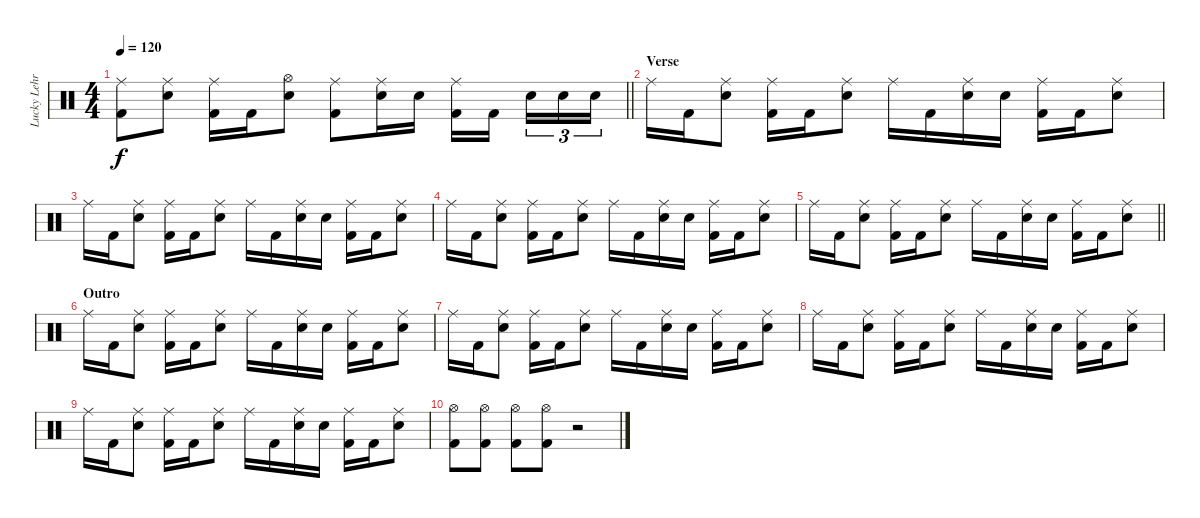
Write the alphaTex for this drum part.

\track ("Lucky Lehrer" "Lucky Lehr") {instrument percussion}
\staff {score}
\articulation defaults
\ts (4 4)
\tempo 120
\clef neutral
\barLineRight lightlight
\ks c
("Ride (middle)" "Kick (hit) 2").8{dy f} ("Ride (middle)" "Electric Snare (hit)").8 ("Ride (middle)" "Kick (hit) 2").16 "Kick (hit) 2".16 ("Hi-Hat (open)" "Electric Snare (hit)").8 ("Ride (middle)" "Kick (hit) 2").8 ("Ride (middle)" "Electric Snare (hit)").16 "Electric Snare (hit)".16 ("Ride (middle)" "Kick (hit) 2").16 "Kick (hit) 2".16{beam splitsecondary} "Electric Snare (hit)".16{tu (3 2)} "Electric Snare (hit)".16{tu (3 2)} "Electric Snare (hit)".16{tu (3 2)} |
\section ("" "Verse")
"Ride (middle)".16 "Kick (hit) 2".16 ("Ride (middle)" "Electric Snare (hit)").8 ("Ride (middle)" "Kick (hit) 2").16 "Kick (hit) 2".16 ("Ride (middle)" "Electric Snare (hit)").8 "Ride (middle)".16 "Kick (hit) 2".16 ("Ride (middle)" "Electric Snare (hit)").16 "Electric Snare (hit)".16 ("Ride (middle)" "Kick (hit) 2").16 "Kick (hit) 2".16 ("Ride (middle)" "Electric Snare (hit)").8 |
"Ride (middle)".16 "Kick (hit) 2".16 ("Ride (middle)" "Electric Snare (hit)").8 ("Ride (middle)" "Kick (hit) 2").16 "Kick (hit) 2".16 ("Ride (middle)" "Electric Snare (hit)").8 "Ride (middle)".16 "Kick (hit) 2".16 ("Ride (middle)" "Electric Snare (hit)").16 "Electric Snare (hit)".16 ("Ride (middle)" "Kick (hit) 2").16 "Kick (hit) 2".16 ("Ride (middle)" "Electric Snare (hit)").8 |
"Ride (middle)".16 "Kick (hit) 2".16 ("Ride (middle)" "Electric Snare (hit)").8 ("Ride (middle)" "Kick (hit) 2").16 "Kick (hit) 2".16 ("Ride (middle)" "Electric Snare (hit)").8 "Ride (middle)".16 "Kick (hit) 2".16 ("Ride (middle)" "Electric Snare (hit)").16 "Electric Snare (hit)".16 ("Ride (middle)" "Kick (hit) 2").16 "Kick (hit) 2".16 ("Ride (middle)" "Electric Snare (hit)").8 |
\barLineRight lightlight "Ride (middle)".16 "Kick (hit) 2".16
("Ride (middle)" "Electric Snare (hit)").8 ("Ride (middle)" "Kick (hit) 2").16 "Kick (hit) 2".16 ("Ride (middle)" "Electric Snare (hit)").8 "Ride (middle)".16 "Kick (hit) 2".16 ("Ride (middle)" "Electric Snare (hit)").16 "Electric Snare (hit)".16 ("Ride (middle)" "Kick (hit) 2").16 "Kick (hit) 2".16 ("Ride (middle)" "Electric Snare (hit)").8 |
\section ("" "Outro")
"Ride (middle)".16 "Kick (hit) 2".16 ("Ride (middle)" "Electric Snare (hit)").8 ("Ride (middle)" "Kick (hit) 2").16 "Kick (hit) 2".16 ("Ride (middle)" "Electric Snare (hit)").8 "Ride (middle)".16 "Kick (hit) 2".16 ("Ride (middle)" "Electric Snare (hit)").16 "Electric Snare (hit)".16 ("Ride (middle)" "Kick (hit) 2").16 "Kick (hit) 2".16 ("Ride (middle)" "Electric Snare (hit)").8 |
"Ride (middle)".16 "Kick (hit) 2".16 ("Ride (middle)" "Electric Snare (hit)").8 ("Ride (middle)" "Kick (hit) 2").16 "Kick (hit) 2".16 ("Ride (middle)" "Electric Snare (hit)").8 "Ride (middle)".16 "Kick (hit) 2".16 ("Ride (middle)" "Electric Snare (hit)").16 "Electric Snare (hit)".16 ("Ride (middle)" "Kick (hit) 2").16 "Kick (hit) 2".16 ("Ride (middle)" "Electric Snare (hit)").8 |
"Ride (middle)".16 "Kick (hit) 2".16 ("Ride (middle)" "Electric Snare (hit)").8 ("Ride (middle)" "Kick (hit) 2").16 "Kick (hit) 2".16 ("Ride (middle)" "Electric Snare (hit)").8 "Ride (middle)".16 "Kick (hit) 2".16 ("Ride (middle)" "Electric Snare (hit)").16 "Electric Snare (hit)".16 ("Ride (middle)" "Kick (hit) 2").16 "Kick (hit) 2".16 ("Ride (middle)" "Electric Snare (hit)").8 |
"Ride (middle)".16 "Kick (hit) 2".16 ("Ride (middle)" "Electric Snare (hit)").8 ("Ride (middle)" "Kick (hit) 2").16 "Kick (hit) 2".16 ("Ride (middle)" "Electric Snare (hit)").8 "Ride (middle)".16 "Kick (hit) 2".16 ("Ride (middle)" "Electric Snare (hit)").16 "Electric Snare (hit)".16 ("Ride (middle)" "Kick (hit) 2").16 "Kick (hit) 2".16 ("Ride (middle)" "Electric Snare (hit)").8 |
("Hi-Hat (open)" "Kick (hit) 2").8 ("Hi-Hat (open)" "Kick (hit) 2").8 ("Hi-Hat (open)" "Kick (hit) 2").8 ("Hi-Hat (open)" "Kick (hit) 2").8 r.2
